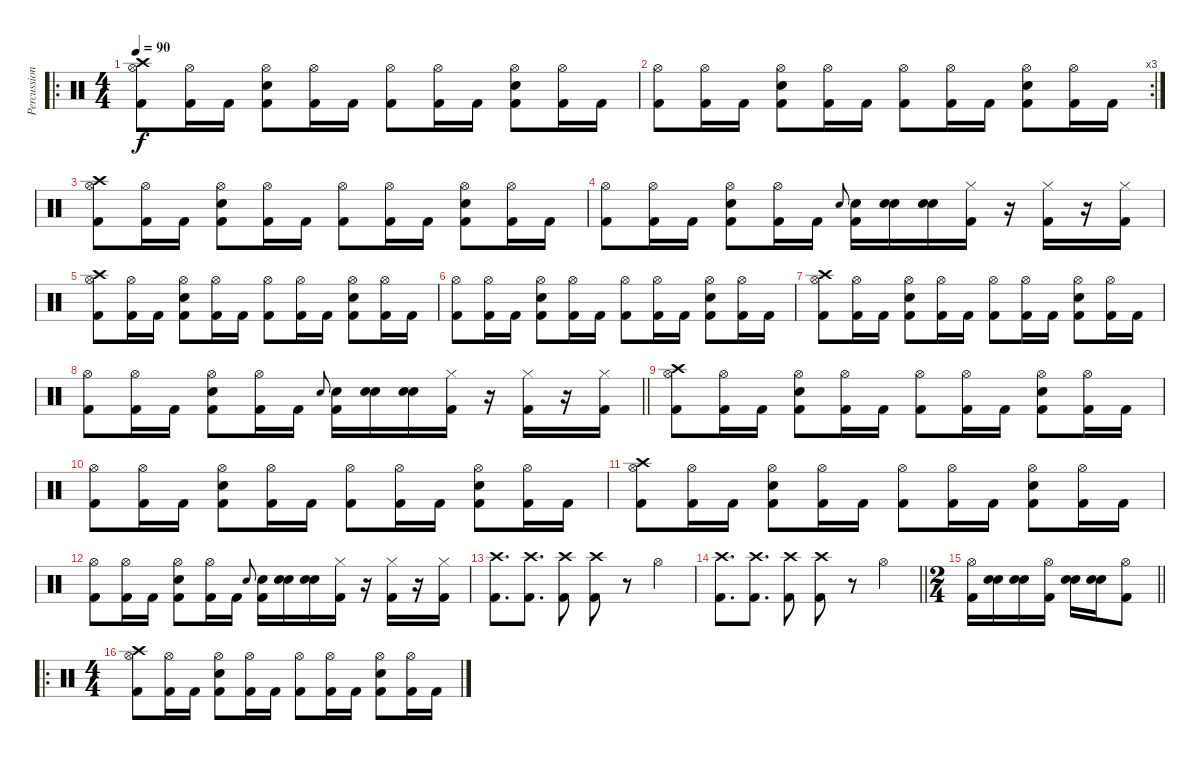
\track ("Percussion " "Percussion") {instrument percussion}
\staff {score}
\articulation defaults
\ro
\ts (4 4)
\tempo 90
\clef neutral
\ks c
("Crash high (hit)" "Hi-Hat (open)" "Kick (hit) 2").8{dy f} ("Hi-Hat (open)" "Kick (hit) 2").16 "Kick (hit) 2".16 ("Hi-Hat (open)" "Snare (hit) 2" "Kick (hit) 2").8 ("Hi-Hat (open)" "Kick (hit) 2").16 "Kick (hit) 2".16 ("Hi-Hat (open)" "Kick (hit) 2").8 ("Hi-Hat (open)" "Kick (hit) 2").16 "Kick (hit) 2".16 ("Hi-Hat (open)" "Snare (hit) 2" "Kick (hit) 2").8 ("Hi-Hat (open)" "Kick (hit) 2").16 "Kick (hit) 2".16 |
\rc 3
("Hi-Hat (open)" "Kick (hit) 2").8 ("Hi-Hat (open)" "Kick (hit) 2").16 "Kick (hit) 2".16 ("Hi-Hat (open)" "Snare (hit) 2" "Kick (hit) 2").8 ("Hi-Hat (open)" "Kick (hit) 2").16 "Kick (hit) 2".16 ("Hi-Hat (open)" "Kick (hit) 2").8 ("Hi-Hat (open)" "Kick (hit) 2").16 "Kick (hit) 2".16 ("Hi-Hat (open)" "Snare (hit) 2" "Kick (hit) 2").8 ("Hi-Hat (open)" "Kick (hit) 2").16 "Kick (hit) 2".16 |
("Crash high (hit)" "Hi-Hat (open)" "Kick (hit) 2").8 ("Hi-Hat (open)" "Kick (hit) 2").16 "Kick (hit) 2".16 ("Hi-Hat (open)" "Snare (hit) 2" "Kick (hit) 2").8 ("Hi-Hat (open)" "Kick (hit) 2").16 "Kick (hit) 2".16 ("Hi-Hat (open)" "Kick (hit) 2").8 ("Hi-Hat (open)" "Kick (hit) 2").16 "Kick (hit) 2".16 ("Hi-Hat (open)" "Snare (hit) 2" "Kick (hit) 2").8 ("Hi-Hat (open)" "Kick (hit) 2").16 "Kick (hit) 2".16 |
("Hi-Hat (open)" "Kick (hit) 2").8 ("Hi-Hat (open)" "Kick (hit) 2").16 "Kick (hit) 2".16 ("Hi-Hat (open)" "Snare (hit) 2" "Kick (hit) 2").8 ("Hi-Hat (open)" "Kick (hit) 2").16 "Kick (hit) 2".16 "Snare (hit) 2".8{gr onbeat} ("Snare (hit) 2" "Kick (hit) 2").16 ("Snare (hit) 2" "Snare (hit) 2").16 ("Snare (hit) 2" "Snare (hit) 2").16 ("Hi-Hat (closed)" "Kick (hit) 2").16 r.16 ("Hi-Hat (closed)" "Kick (hit) 2").16 r.16 ("Hi-Hat (closed)" "Kick (hit) 2").16 |
("Crash high (hit)" "Hi-Hat (open)" "Kick (hit) 2").8 ("Hi-Hat (open)" "Kick (hit) 2").16 "Kick (hit) 2".16 ("Hi-Hat (open)" "Snare (hit) 2" "Kick (hit) 2").8 ("Hi-Hat (open)" "Kick (hit) 2").16 "Kick (hit) 2".16 ("Hi-Hat (open)" "Kick (hit) 2").8 ("Hi-Hat (open)" "Kick (hit) 2").16 "Kick (hit) 2".16 ("Hi-Hat (open)" "Snare (hit) 2" "Kick (hit) 2").8 ("Hi-Hat (open)" "Kick (hit) 2").16 "Kick (hit) 2".16 |
("Hi-Hat (open)" "Kick (hit) 2").8 ("Hi-Hat (open)" "Kick (hit) 2").16 "Kick (hit) 2".16 ("Hi-Hat (open)" "Snare (hit) 2" "Kick (hit) 2").8 ("Hi-Hat (open)" "Kick (hit) 2").16 "Kick (hit) 2".16 ("Hi-Hat (open)" "Kick (hit) 2").8 ("Hi-Hat (open)" "Kick (hit) 2").16 "Kick (hit) 2".16 ("Hi-Hat (open)" "Snare (hit) 2" "Kick (hit) 2").8 ("Hi-Hat (open)" "Kick (hit) 2").16 "Kick (hit) 2".16 |
("Crash high (hit)" "Hi-Hat (open)" "Kick (hit) 2").8 ("Hi-Hat (open)" "Kick (hit) 2").16 "Kick (hit) 2".16 ("Hi-Hat (open)" "Snare (hit) 2" "Kick (hit) 2").8 ("Hi-Hat (open)" "Kick (hit) 2").16 "Kick (hit) 2".16 ("Hi-Hat (open)" "Kick (hit) 2").8 ("Hi-Hat (open)" "Kick (hit) 2").16 "Kick (hit) 2".16 ("Hi-Hat (open)" "Snare (hit) 2" "Kick (hit) 2").8 ("Hi-Hat (open)" "Kick (hit) 2").16 "Kick (hit) 2".16 |
\barLineRight lightlight
("Hi-Hat (open)" "Kick (hit) 2").8 ("Hi-Hat (open)" "Kick (hit) 2").16 "Kick (hit) 2".16 ("Hi-Hat (open)" "Snare (hit) 2" "Kick (hit) 2").8 ("Hi-Hat (open)" "Kick (hit) 2").16 "Kick (hit) 2".16 "Snare (hit) 2".8{gr onbeat} ("Snare (hit) 2" "Kick (hit) 2").16 ("Snare (hit) 2" "Snare (hit) 2").16 ("Snare (hit) 2" "Snare (hit) 2").16 ("Hi-Hat (closed)" "Kick (hit) 2").16 r.16 ("Hi-Hat (closed)" "Kick (hit) 2").16 r.16 ("Hi-Hat (closed)" "Kick (hit) 2").16 |
("Crash high (hit)" "Hi-Hat (open)" "Kick (hit) 2").8 ("Hi-Hat (open)" "Kick (hit) 2").16 "Kick (hit) 2".16 ("Hi-Hat (open)" "Snare (hit) 2" "Kick (hit) 2").8 ("Hi-Hat (open)" "Kick (hit) 2").16 "Kick (hit) 2".16 ("Hi-Hat (open)" "Kick (hit) 2").8 ("Hi-Hat (open)" "Kick (hit) 2").16 "Kick (hit) 2".16 ("Hi-Hat (open)" "Snare (hit) 2" "Kick (hit) 2").8 ("Hi-Hat (open)" "Kick (hit) 2").16 "Kick (hit) 2".16 |
("Hi-Hat (open)" "Kick (hit) 2").8 ("Hi-Hat (open)" "Kick (hit) 2").16 "Kick (hit) 2".16 ("Hi-Hat (open)" "Snare (hit) 2" "Kick (hit) 2").8 ("Hi-Hat (open)" "Kick (hit) 2").16 "Kick (hit) 2".16 ("Hi-Hat (open)" "Kick (hit) 2").8 ("Hi-Hat (open)" "Kick (hit) 2").16 "Kick (hit) 2".16 ("Hi-Hat (open)" "Snare (hit) 2" "Kick (hit) 2").8 ("Hi-Hat (open)" "Kick (hit) 2").16 "Kick (hit) 2".16 |
("Crash high (hit)" "Hi-Hat (open)" "Kick (hit) 2").8 ("Hi-Hat (open)" "Kick (hit) 2").16 "Kick (hit) 2".16 ("Hi-Hat (open)" "Snare (hit) 2" "Kick (hit) 2").8 ("Hi-Hat (open)" "Kick (hit) 2").16 "Kick (hit) 2".16 ("Hi-Hat (open)" "Kick (hit) 2").8 ("Hi-Hat (open)" "Kick (hit) 2").16 "Kick (hit) 2".16 ("Hi-Hat (open)" "Snare (hit) 2" "Kick (hit) 2").8 ("Hi-Hat (open)" "Kick (hit) 2").16 "Kick (hit) 2".16 |
("Hi-Hat (open)" "Kick (hit) 2").8 ("Hi-Hat (open)" "Kick (hit) 2").16 "Kick (hit) 2".16 ("Hi-Hat (open)" "Snare (hit) 2" "Kick (hit) 2").8 ("Hi-Hat (open)" "Kick (hit) 2").16 "Kick (hit) 2".16 "Snare (hit) 2".8{gr onbeat} ("Snare (hit) 2" "Kick (hit) 2").16 ("Snare (hit) 2" "Snare (hit) 2").16 ("Snare (hit) 2" "Snare (hit) 2").16 ("Hi-Hat (closed)" "Kick (hit) 2").16 r.16 ("Hi-Hat (closed)" "Kick (hit) 2").16 r.16 ("Hi-Hat (closed)" "Kick (hit) 2").16 |
("Crash high (hit)" "Kick (hit) 2").8{d} ("Crash high (hit)" "Kick (hit) 2").8{d} ("Crash high (hit)" "Kick (hit) 2").8 ("Crash high (hit)" "Kick (hit) 2").8 r.8 "Hi-Hat (open)".4 |
\barLineRight lightlight
("Crash high (hit)" "Kick (hit) 2").8{d} ("Crash high (hit)" "Kick (hit) 2").8{d} ("Crash high (hit)" "Kick (hit) 2").8 ("Crash high (hit)" "Kick (hit) 2").8 r.8 "Hi-Hat (open)".4 |
\ts (2 4)
\barLineRight lightlight
("Hi-Hat (open)" "Kick (hit) 2").16 ("Snare (hit) 2" "Snare (hit) 2").16 ("Snare (hit) 2" "Snare (hit) 2").16 ("Hi-Hat (open)" "Kick (hit) 2").16 ("Snare (hit) 2" "Snare (hit) 2").16 ("Snare (hit) 2" "Snare (hit) 2").16 ("Hi-Hat (open)" "Kick (hit) 2").8 |
\ro
\ts (4 4)
("Crash high (hit)" "Hi-Hat (open)" "Kick (hit) 2").8 ("Hi-Hat (open)" "Kick (hit) 2").16 "Kick (hit) 2".16 ("Hi-Hat (open)" "Snare (hit) 2" "Kick (hit) 2").8 ("Hi-Hat (open)" "Kick (hit) 2").16 "Kick (hit) 2".16 ("Hi-Hat (open)" "Kick (hit) 2").8 ("Hi-Hat (open)" "Kick (hit) 2").16 "Kick (hit) 2".16 ("Hi-Hat (open)" "Snare (hit) 2" "Kick (hit) 2").8 ("Hi-Hat (open)" "Kick (hit) 2").16 "Kick (hit) 2".16
